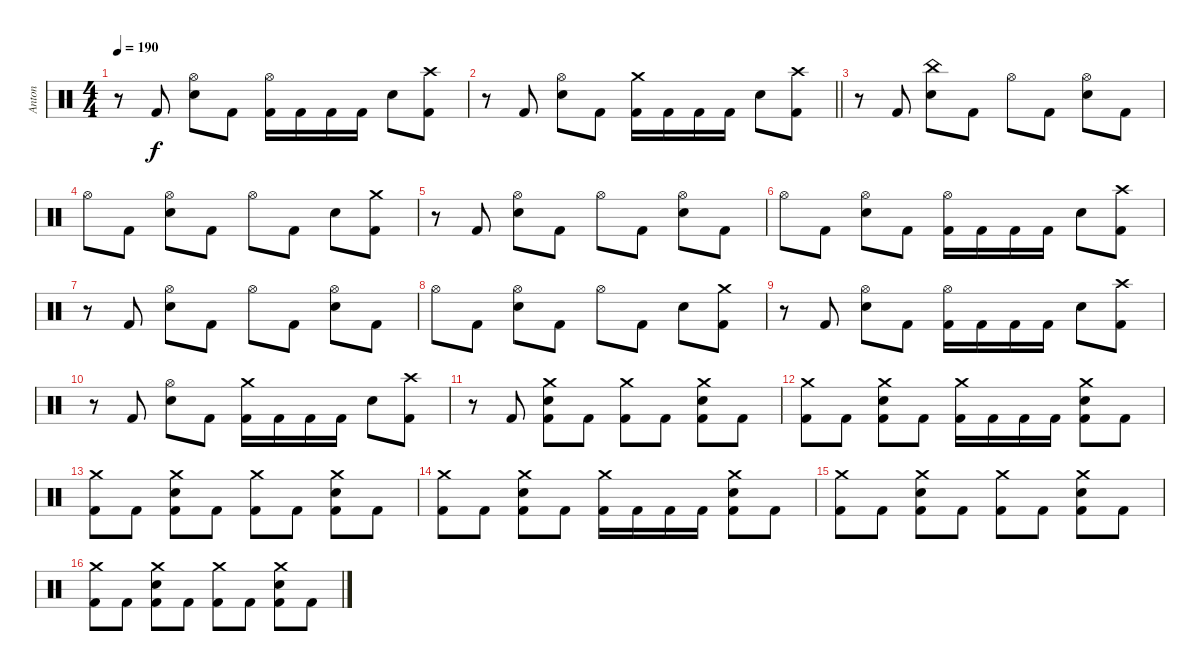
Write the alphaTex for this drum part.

\track ("Anton" "Anton") {instrument percussion}
\staff {score}
\articulation defaults
\ts (4 4)
\tempo 190
\clef neutral
\ks c
r.8{dy f} "Kick (hit) 2".8 ("Hi-Hat (open)" "Electric Snare (hit)").8 "Kick (hit) 2".8 ("Hi-Hat (open)" "Kick (hit) 2").16 "Kick (hit) 2".16 "Kick (hit) 2".16 "Kick (hit) 2".16 "Electric Snare (hit)".8 ("Crash high (hit)" "Kick (hit) 2").8 |
\barLineRight lightlight
r.8 "Kick (hit) 2".8 ("Hi-Hat (open)" "Electric Snare (hit)").8 "Kick (hit) 2".8 ("Crash medium (hit)" "Kick (hit) 2").16 "Kick (hit) 2".16 "Kick (hit) 2".16 "Kick (hit) 2".16 "Electric Snare (hit)".8 ("Crash high (hit)" "Kick (hit) 2").8 |
r.8 "Kick (hit) 2".8 ("China (hit)" "Electric Snare (hit)").8 "Kick (hit) 2".8 "Hi-Hat (open)".8 "Kick (hit) 2".8 ("Hi-Hat (open)" "Electric Snare (hit)").8 "Kick (hit) 2".8 |
"Hi-Hat (open)".8 "Kick (hit) 2".8 ("Hi-Hat (open)" "Electric Snare (hit)").8 "Kick (hit) 2".8 "Hi-Hat (open)".8 "Kick (hit) 2".8 "Electric Snare (hit)".8 ("Crash medium (hit)" "Kick (hit) 2").8 |
r.8 "Kick (hit) 2".8 ("Hi-Hat (open)" "Electric Snare (hit)").8 "Kick (hit) 2".8 "Hi-Hat (open)".8 "Kick (hit) 2".8 ("Hi-Hat (open)" "Electric Snare (hit)").8 "Kick (hit) 2".8 |
"Hi-Hat (open)".8 "Kick (hit) 2".8 ("Hi-Hat (open)" "Electric Snare (hit)").8 "Kick (hit) 2".8 ("Hi-Hat (open)" "Kick (hit) 2").16 "Kick (hit) 2".16 "Kick (hit) 2".16 "Kick (hit) 2".16 "Electric Snare (hit)".8 ("Crash high (hit)" "Kick (hit) 2").8 |
r.8 "Kick (hit) 2".8 ("Hi-Hat (open)" "Electric Snare (hit)").8 "Kick (hit) 2".8 "Hi-Hat (open)".8 "Kick (hit) 2".8 ("Hi-Hat (open)" "Electric Snare (hit)").8 "Kick (hit) 2".8 |
"Hi-Hat (open)".8 "Kick (hit) 2".8 ("Hi-Hat (open)" "Electric Snare (hit)").8 "Kick (hit) 2".8 "Hi-Hat (open)".8 "Kick (hit) 2".8 "Electric Snare (hit)".8 ("Crash medium (hit)" "Kick (hit) 2").8 |
r.8 "Kick (hit) 2".8 ("Hi-Hat (open)" "Electric Snare (hit)").8 "Kick (hit) 2".8 ("Hi-Hat (open)" "Kick (hit) 2").16 "Kick (hit) 2".16 "Kick (hit) 2".16 "Kick (hit) 2".16 "Electric Snare (hit)".8 ("Crash high (hit)" "Kick (hit) 2").8 |
r.8 "Kick (hit) 2".8 ("Hi-Hat (open)" "Electric Snare (hit)").8 "Kick (hit) 2".8 ("Crash medium (hit)" "Kick (hit) 2").16 "Kick (hit) 2".16 "Kick (hit) 2".16 "Kick (hit) 2".16 "Electric Snare (hit)".8 ("Crash high (hit)" "Kick (hit) 2").8 |
r.8 "Kick (hit) 2".8 ("Crash medium (hit)" "Electric Snare (hit)" "Kick (hit) 2").8 "Kick (hit) 2".8 ("Crash medium (hit)" "Kick (hit) 2").8 "Kick (hit) 2".8 ("Crash medium (hit)" "Electric Snare (hit)" "Kick (hit) 2").8 "Kick (hit) 2".8 |
("Crash medium (hit)" "Kick (hit) 2").8 "Kick (hit) 2".8 ("Crash medium (hit)" "Electric Snare (hit)" "Kick (hit) 2").8 "Kick (hit) 2".8 ("Crash medium (hit)" "Kick (hit) 2").16 "Kick (hit) 2".16 "Kick (hit) 2".16 "Kick (hit) 2".16 ("Crash medium (hit)" "Electric Snare (hit)" "Kick (hit) 2").8 "Kick (hit) 2".8 |
("Crash medium (hit)" "Kick (hit) 2").8 "Kick (hit) 2".8 ("Crash medium (hit)" "Electric Snare (hit)" "Kick (hit) 2").8 "Kick (hit) 2".8 ("Crash medium (hit)" "Kick (hit) 2").8 "Kick (hit) 2".8 ("Crash medium (hit)" "Electric Snare (hit)" "Kick (hit) 2").8 "Kick (hit) 2".8 |
("Crash medium (hit)" "Kick (hit) 2").8 "Kick (hit) 2".8 ("Crash medium (hit)" "Electric Snare (hit)" "Kick (hit) 2").8 "Kick (hit) 2".8 ("Crash medium (hit)" "Kick (hit) 2").16 "Kick (hit) 2".16 "Kick (hit) 2".16 "Kick (hit) 2".16 ("Crash medium (hit)" "Electric Snare (hit)" "Kick (hit) 2").8 "Kick (hit) 2".8 |
("Crash medium (hit)" "Kick (hit) 2").8 "Kick (hit) 2".8 ("Crash medium (hit)" "Electric Snare (hit)" "Kick (hit) 2").8 "Kick (hit) 2".8 ("Crash medium (hit)" "Kick (hit) 2").8 "Kick (hit) 2".8 ("Crash medium (hit)" "Electric Snare (hit)" "Kick (hit) 2").8 "Kick (hit) 2".8 |
("Crash medium (hit)" "Kick (hit) 2").8 "Kick (hit) 2".8 ("Crash medium (hit)" "Electric Snare (hit)" "Kick (hit) 2").8 "Kick (hit) 2".8 ("Crash medium (hit)" "Kick (hit) 2").8 "Kick (hit) 2".8 ("Crash medium (hit)" "Electric Snare (hit)" "Kick (hit) 2").8 "Kick (hit) 2".8
